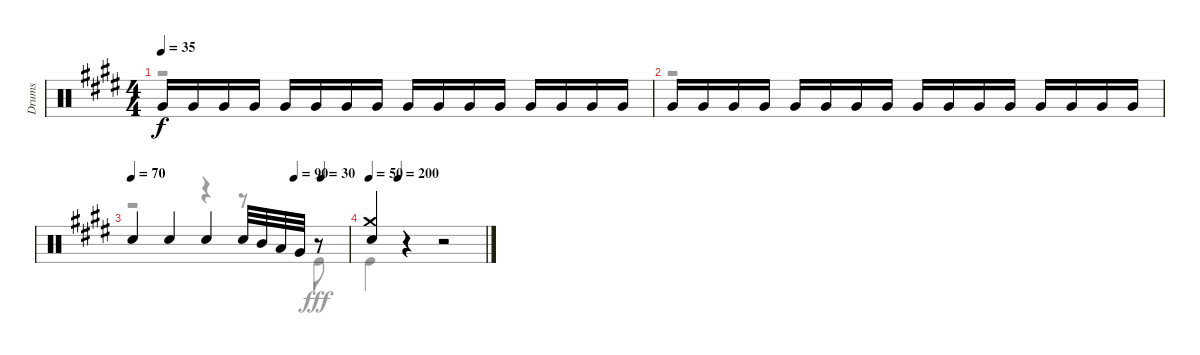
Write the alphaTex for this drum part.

\track ("Drums" "Drums") {instrument percussion}
\staff {score}
\articulation defaults
\voice
\ts (4 4)
\tempo 35
\clef neutral
\ks e "Very Low Tom (hit)".16{dy f} "Very Low Tom (hit)".16 "Very Low Tom (hit)".16 "Very Low Tom (hit)".16 "Very Low Tom (hit)".16 "Very Low Tom (hit)".16 "Very Low Tom (hit)".16 "Very Low Tom (hit)".16 "Very Low Tom (hit)".16 "Very Low Tom (hit)".16 "Very Low Tom (hit)".16 "Very Low Tom (hit)".16 "Very Low Tom (hit)".16 "Very Low Tom (hit)".16 "Very Low Tom (hit)".16 "Very Low Tom (hit)".16
|
"Very Low Tom (hit)".16 "Very Low Tom (hit)".16 "Very Low Tom (hit)".16 "Very Low Tom (hit)".16 "Very Low Tom (hit)".16 "Very Low Tom (hit)".16 "Very Low Tom (hit)".16 "Very Low Tom (hit)".16 "Very Low Tom (hit)".16 "Very Low Tom (hit)".16 "Very Low Tom (hit)".16 "Very Low Tom (hit)".16 "Very Low Tom (hit)".16 "Very Low Tom (hit)".16 "Very Low Tom (hit)".16 "Very Low Tom (hit)".16 |
\tempo 70
\tempo (90 0.75)
\tempo (30 0.875)
"Snare (hit) 2".4 "Snare (hit) 2".4 "Snare (hit) 2".4 "Snare (hit) 2".32 "Mid Tom (hit)".32 "Low Tom (hit)".32 "Very Low Tom (hit)".32 r.8 |
\tempo 50
\tempo (200 0.25)
("Crash medium (hit)" "Snare (hit) 2").4 r.4 r.2
\voice
\clef neutral
\ottava regular
\simile none
\ks e
r.1{dy fff} |
r.1 |
r.2 r.4 r.8 "Kick (hit)".8 |
"Kick (hit)".4 r.4 r.2
